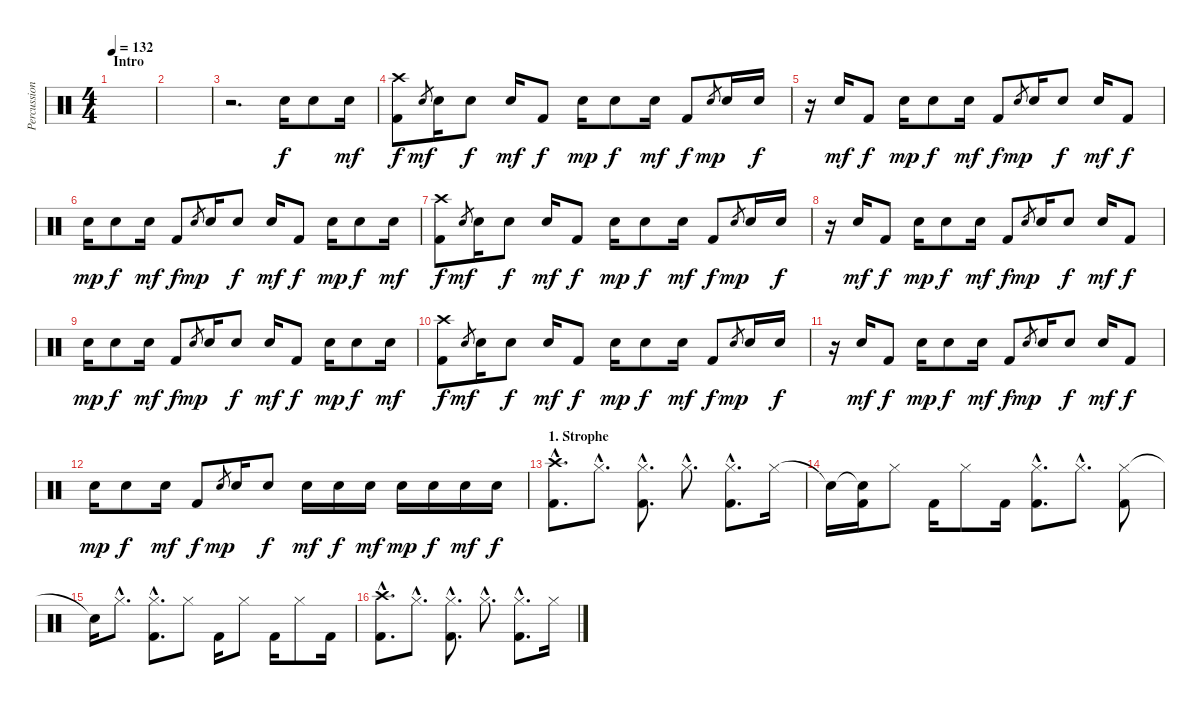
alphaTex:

\track ("Percussion" "Percussion") {instrument percussion}
\staff {score}
\articulation defaults
\ts (4 4)
\section ("" "Intro")
\tempo 132
\clef neutral
\ks c
|
|
r.2{d} "Snare (hit) 2".16 "Electric Snare (hit)".8{dy f} "Electric Snare (hit)".16{dy mf} |
("Crash high (hit)" "Kick (hit) 2").8{dy f} "Snare (hit) 2".8{gr dy mf} "Snare (hit) 2".16 "Electric Snare (hit)".8{dy f} "Electric Snare (hit)".16{dy mf} "Kick (hit) 2".8{dy f} "Snare (hit) 2".16{dy mp} "Electric Snare (hit)".8{dy f} "Electric Snare (hit)".16{dy mf} "Kick (hit) 2".8{dy f} "Snare (hit) 2".8{gr dy mp} "Snare (hit) 2".16 "Electric Snare (hit)".16{dy f} |
r.16 "Electric Snare (hit)".16{dy mf} "Kick (hit) 2".8{dy f} "Snare (hit) 2".16{dy mp} "Electric Snare (hit)".8{dy f} "Electric Snare (hit)".16{dy mf} "Kick (hit) 2".8{dy f} "Snare (hit) 2".8{gr dy mp} "Snare (hit) 2".16 "Electric Snare (hit)".8{dy f} "Electric Snare (hit)".16{dy mf} "Kick (hit) 2".8{dy f} |
"Snare (hit) 2".16{dy mp} "Electric Snare (hit)".8{dy f} "Electric Snare (hit)".16{dy mf} "Kick (hit) 2".8{dy f} "Snare (hit) 2".8{gr dy mp} "Snare (hit) 2".16 "Electric Snare (hit)".8{dy f} "Electric Snare (hit)".16{dy mf} "Kick (hit) 2".8{dy f} "Snare (hit) 2".16{dy mp} "Electric Snare (hit)".8{dy f} "Electric Snare (hit)".16{dy mf} |
("Crash high (hit)" "Kick (hit) 2").8{dy f} "Snare (hit) 2".8{gr dy mf} "Snare (hit) 2".16 "Electric Snare (hit)".8{dy f} "Electric Snare (hit)".16{dy mf} "Kick (hit) 2".8{dy f} "Snare (hit) 2".16{dy mp} "Electric Snare (hit)".8{dy f} "Electric Snare (hit)".16{dy mf} "Kick (hit) 2".8{dy f} "Snare (hit) 2".8{gr dy mp} "Snare (hit) 2".16 "Electric Snare (hit)".16{dy f} |
r.16 "Electric Snare (hit)".16{dy mf} "Kick (hit) 2".8{dy f} "Snare (hit) 2".16{dy mp} "Electric Snare (hit)".8{dy f} "Electric Snare (hit)".16{dy mf} "Kick (hit) 2".8{dy f} "Snare (hit) 2".8{gr dy mp} "Snare (hit) 2".16 "Electric Snare (hit)".8{dy f} "Electric Snare (hit)".16{dy mf} "Kick (hit) 2".8{dy f} |
"Snare (hit) 2".16{dy mp} "Electric Snare (hit)".8{dy f} "Electric Snare (hit)".16{dy mf} "Kick (hit) 2".8{dy f} "Snare (hit) 2".8{gr dy mp} "Snare (hit) 2".16 "Electric Snare (hit)".8{dy f} "Electric Snare (hit)".16{dy mf} "Kick (hit) 2".8{dy f} "Snare (hit) 2".16{dy mp} "Electric Snare (hit)".8{dy f} "Electric Snare (hit)".16{dy mf} |
("Crash high (hit)" "Kick (hit) 2").8{dy f} "Snare (hit) 2".8{gr dy mf} "Snare (hit) 2".16 "Electric Snare (hit)".8{dy f} "Electric Snare (hit)".16{dy mf} "Kick (hit) 2".8{dy f} "Snare (hit) 2".16{dy mp} "Electric Snare (hit)".8{dy f} "Electric Snare (hit)".16{dy mf} "Kick (hit) 2".8{dy f} "Snare (hit) 2".8{gr dy mp} "Snare (hit) 2".16 "Electric Snare (hit)".16{dy f} |
r.16 "Electric Snare (hit)".16{dy mf} "Kick (hit) 2".8{dy f} "Snare (hit) 2".16{dy mp} "Electric Snare (hit)".8{dy f} "Electric Snare (hit)".16{dy mf} "Kick (hit) 2".8{dy f} "Snare (hit) 2".8{gr dy mp} "Snare (hit) 2".16 "Electric Snare (hit)".8{dy f} "Electric Snare (hit)".16{dy mf} "Kick (hit) 2".8{dy f} |
"Snare (hit) 2".16{dy mp} "Electric Snare (hit)".8{dy f} "Electric Snare (hit)".16{dy mf} "Kick (hit) 2".8{dy f} "Snare (hit) 2".8{gr dy mp} "Snare (hit) 2".16 "Electric Snare (hit)".8{dy f} "Electric Snare (hit)".16{dy mf} "Electric Snare (hit)".16{dy f} "Electric Snare (hit)".16{dy mf} "Electric Snare (hit)".16{dy mp} "Electric Snare (hit)".16{dy f} "Electric Snare (hit)".16{dy mf} "Electric Snare (hit)".16{dy f} |
\section ("" "1. Strophe")
("Crash high (hit)"{hac} "Kick (hit) 2"{hac}).8{d} "Hi-Hat (closed)"{hac}.8{d} ("Hi-Hat (closed)"{hac} "Kick (hit) 2"{hac}).8{d} "Hi-Hat (closed)"{hac}.8{d} ("Hi-Hat (closed)"{hac} "Kick (hit) 2"{hac}).8{d} "Hi-Hat (closed)".16 |
"Snare (hit)"{t}.16 ("Snare (hit)"{t} "Kick (hit) 2").16 "Hi-Hat (closed)".8 "Kick (hit) 2".16 "Hi-Hat (closed)".8 "Kick (hit) 2".16 ("Hi-Hat (closed)"{hac} "Kick (hit) 2"{hac}).8{d} "Hi-Hat (closed)"{hac}.8{d} ("Hi-Hat (closed)" "Kick (hit) 2").8 |
"Snare (hit)"{t}.16 "Hi-Hat (closed)"{hac}.8{d} ("Hi-Hat (closed)"{hac} "Kick (hit) 2"{hac}).8{d} "Hi-Hat (closed)".8 "Kick (hit) 2".16 "Hi-Hat (closed)".8 "Kick (hit) 2".16 "Hi-Hat (closed)".8 "Kick (hit) 2".16 |
("Crash high (hit)"{hac} "Kick (hit) 2"{hac}).8{d} "Hi-Hat (closed)"{hac}.8{d} ("Hi-Hat (closed)"{hac} "Kick (hit) 2"{hac}).8{d} "Hi-Hat (closed)"{hac}.8{d} ("Hi-Hat (closed)"{hac} "Kick (hit) 2"{hac}).8{d} "Hi-Hat (closed)".16
